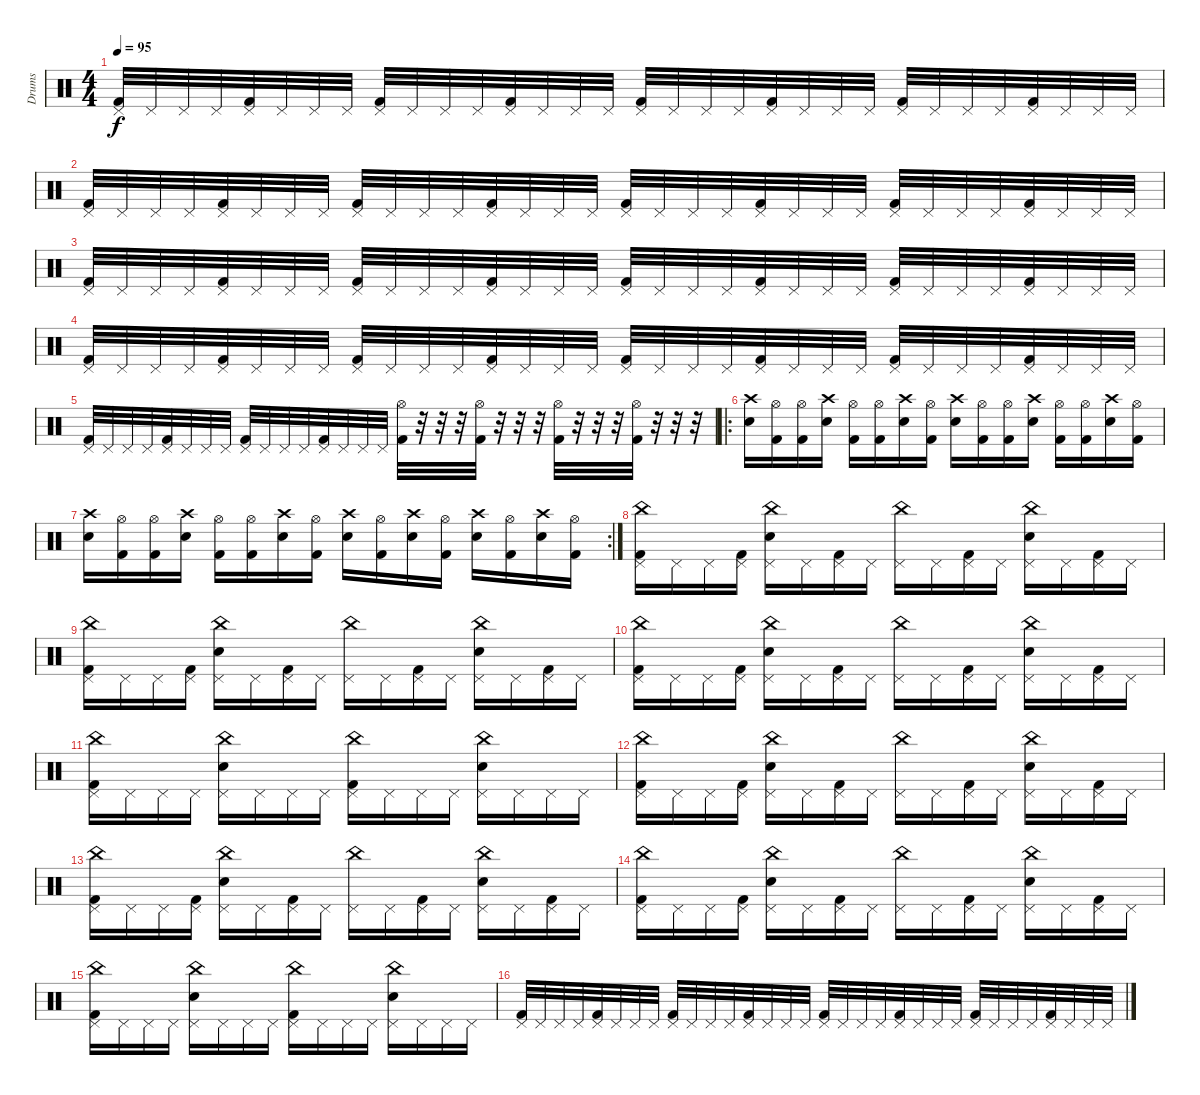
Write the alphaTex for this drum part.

\track ("Drums" "Drums") {instrument percussion}
\staff {score}
\articulation defaults
\ts (4 4)
\tempo 95
\clef neutral
\ks c
("Pedal Hi-Hat (hit)" "Kick (hit) 2").32{dy f} "Pedal Hi-Hat (hit)".32 "Pedal Hi-Hat (hit)".32 "Pedal Hi-Hat (hit)".32 ("Pedal Hi-Hat (hit)" "Kick (hit) 2").32 "Pedal Hi-Hat (hit)".32 "Pedal Hi-Hat (hit)".32 "Pedal Hi-Hat (hit)".32 ("Pedal Hi-Hat (hit)" "Kick (hit) 2").32 "Pedal Hi-Hat (hit)".32 "Pedal Hi-Hat (hit)".32 "Pedal Hi-Hat (hit)".32 ("Pedal Hi-Hat (hit)" "Kick (hit) 2").32 "Pedal Hi-Hat (hit)".32 "Pedal Hi-Hat (hit)".32 "Pedal Hi-Hat (hit)".32 ("Pedal Hi-Hat (hit)" "Kick (hit) 2").32 "Pedal Hi-Hat (hit)".32 "Pedal Hi-Hat (hit)".32 "Pedal Hi-Hat (hit)".32 ("Pedal Hi-Hat (hit)" "Kick (hit) 2").32 "Pedal Hi-Hat (hit)".32 "Pedal Hi-Hat (hit)".32 "Pedal Hi-Hat (hit)".32 ("Pedal Hi-Hat (hit)" "Kick (hit) 2").32 "Pedal Hi-Hat (hit)".32 "Pedal Hi-Hat (hit)".32 "Pedal Hi-Hat (hit)".32 ("Pedal Hi-Hat (hit)" "Kick (hit) 2").32 "Pedal Hi-Hat (hit)".32 "Pedal Hi-Hat (hit)".32 "Pedal Hi-Hat (hit)".32 |
("Pedal Hi-Hat (hit)" "Kick (hit) 2").32 "Pedal Hi-Hat (hit)".32 "Pedal Hi-Hat (hit)".32 "Pedal Hi-Hat (hit)".32 ("Pedal Hi-Hat (hit)" "Kick (hit) 2").32 "Pedal Hi-Hat (hit)".32 "Pedal Hi-Hat (hit)".32 "Pedal Hi-Hat (hit)".32 ("Pedal Hi-Hat (hit)" "Kick (hit) 2").32 "Pedal Hi-Hat (hit)".32 "Pedal Hi-Hat (hit)".32 "Pedal Hi-Hat (hit)".32 ("Pedal Hi-Hat (hit)" "Kick (hit) 2").32 "Pedal Hi-Hat (hit)".32 "Pedal Hi-Hat (hit)".32 "Pedal Hi-Hat (hit)".32 ("Pedal Hi-Hat (hit)" "Kick (hit) 2").32 "Pedal Hi-Hat (hit)".32 "Pedal Hi-Hat (hit)".32 "Pedal Hi-Hat (hit)".32 ("Pedal Hi-Hat (hit)" "Kick (hit) 2").32 "Pedal Hi-Hat (hit)".32 "Pedal Hi-Hat (hit)".32 "Pedal Hi-Hat (hit)".32 ("Pedal Hi-Hat (hit)" "Kick (hit) 2").32 "Pedal Hi-Hat (hit)".32 "Pedal Hi-Hat (hit)".32 "Pedal Hi-Hat (hit)".32 ("Pedal Hi-Hat (hit)" "Kick (hit) 2").32 "Pedal Hi-Hat (hit)".32 "Pedal Hi-Hat (hit)".32 "Pedal Hi-Hat (hit)".32 |
("Pedal Hi-Hat (hit)" "Kick (hit) 2").32 "Pedal Hi-Hat (hit)".32 "Pedal Hi-Hat (hit)".32 "Pedal Hi-Hat (hit)".32 ("Pedal Hi-Hat (hit)" "Kick (hit) 2").32 "Pedal Hi-Hat (hit)".32 "Pedal Hi-Hat (hit)".32 "Pedal Hi-Hat (hit)".32 ("Pedal Hi-Hat (hit)" "Kick (hit) 2").32 "Pedal Hi-Hat (hit)".32 "Pedal Hi-Hat (hit)".32 "Pedal Hi-Hat (hit)".32 ("Pedal Hi-Hat (hit)" "Kick (hit) 2").32 "Pedal Hi-Hat (hit)".32 "Pedal Hi-Hat (hit)".32 "Pedal Hi-Hat (hit)".32 ("Pedal Hi-Hat (hit)" "Kick (hit) 2").32 "Pedal Hi-Hat (hit)".32 "Pedal Hi-Hat (hit)".32 "Pedal Hi-Hat (hit)".32 ("Pedal Hi-Hat (hit)" "Kick (hit) 2").32 "Pedal Hi-Hat (hit)".32 "Pedal Hi-Hat (hit)".32 "Pedal Hi-Hat (hit)".32 ("Pedal Hi-Hat (hit)" "Kick (hit) 2").32 "Pedal Hi-Hat (hit)".32 "Pedal Hi-Hat (hit)".32 "Pedal Hi-Hat (hit)".32 ("Pedal Hi-Hat (hit)" "Kick (hit) 2").32 "Pedal Hi-Hat (hit)".32 "Pedal Hi-Hat (hit)".32 "Pedal Hi-Hat (hit)".32 |
("Pedal Hi-Hat (hit)" "Kick (hit) 2").32 "Pedal Hi-Hat (hit)".32 "Pedal Hi-Hat (hit)".32 "Pedal Hi-Hat (hit)".32 ("Pedal Hi-Hat (hit)" "Kick (hit) 2").32 "Pedal Hi-Hat (hit)".32 "Pedal Hi-Hat (hit)".32 "Pedal Hi-Hat (hit)".32 ("Pedal Hi-Hat (hit)" "Kick (hit) 2").32 "Pedal Hi-Hat (hit)".32 "Pedal Hi-Hat (hit)".32 "Pedal Hi-Hat (hit)".32 ("Pedal Hi-Hat (hit)" "Kick (hit) 2").32 "Pedal Hi-Hat (hit)".32 "Pedal Hi-Hat (hit)".32 "Pedal Hi-Hat (hit)".32 ("Pedal Hi-Hat (hit)" "Kick (hit) 2").32 "Pedal Hi-Hat (hit)".32 "Pedal Hi-Hat (hit)".32 "Pedal Hi-Hat (hit)".32 ("Pedal Hi-Hat (hit)" "Kick (hit) 2").32 "Pedal Hi-Hat (hit)".32 "Pedal Hi-Hat (hit)".32 "Pedal Hi-Hat (hit)".32 ("Pedal Hi-Hat (hit)" "Kick (hit) 2").32 "Pedal Hi-Hat (hit)".32 "Pedal Hi-Hat (hit)".32 "Pedal Hi-Hat (hit)".32 ("Pedal Hi-Hat (hit)" "Kick (hit) 2").32 "Pedal Hi-Hat (hit)".32 "Pedal Hi-Hat (hit)".32 "Pedal Hi-Hat (hit)".32 |
("Pedal Hi-Hat (hit)" "Kick (hit) 2").32 "Pedal Hi-Hat (hit)".32 "Pedal Hi-Hat (hit)".32 "Pedal Hi-Hat (hit)".32 ("Pedal Hi-Hat (hit)" "Kick (hit) 2").32 "Pedal Hi-Hat (hit)".32 "Pedal Hi-Hat (hit)".32 "Pedal Hi-Hat (hit)".32 ("Pedal Hi-Hat (hit)" "Kick (hit) 2").32 "Pedal Hi-Hat (hit)".32 "Pedal Hi-Hat (hit)".32 "Pedal Hi-Hat (hit)".32 ("Pedal Hi-Hat (hit)" "Kick (hit) 2").32 "Pedal Hi-Hat (hit)".32 "Pedal Hi-Hat (hit)".32 "Pedal Hi-Hat (hit)".32 ("Hi-Hat (open)" "Kick (hit) 2").32 r.32 r.32 r.32 ("Hi-Hat (open)" "Kick (hit) 2").32 r.32 r.32 r.32 ("Hi-Hat (open)" "Kick (hit) 2").32 r.32 r.32 r.32 ("Hi-Hat (open)" "Kick (hit) 2").32 r.32 r.32 r.32 |
\ro
("Crash high (hit)" "Electric Snare (hit)").16 ("Hi-Hat (open)" "Kick (hit) 2").16 ("Hi-Hat (open)" "Kick (hit) 2").16 ("Crash high (hit)" "Electric Snare (hit)").16 ("Hi-Hat (open)" "Kick (hit) 2").16 ("Hi-Hat (open)" "Kick (hit) 2").16 ("Crash high (hit)" "Electric Snare (hit)").16 ("Hi-Hat (open)" "Kick (hit) 2").16 ("Crash high (hit)" "Electric Snare (hit)").16 ("Hi-Hat (open)" "Kick (hit) 2").16 ("Hi-Hat (open)" "Kick (hit) 2").16 ("Crash high (hit)" "Electric Snare (hit)").16 ("Hi-Hat (open)" "Kick (hit) 2").16 ("Hi-Hat (open)" "Kick (hit) 2").16 ("Crash high (hit)" "Electric Snare (hit)").16 ("Hi-Hat (open)" "Kick (hit) 2").16 |
\rc 2
("Crash high (hit)" "Electric Snare (hit)").16 ("Hi-Hat (open)" "Kick (hit) 2").16 ("Hi-Hat (open)" "Kick (hit) 2").16 ("Crash high (hit)" "Electric Snare (hit)").16 ("Hi-Hat (open)" "Kick (hit) 2").16 ("Hi-Hat (open)" "Kick (hit) 2").16 ("Crash high (hit)" "Electric Snare (hit)").16 ("Hi-Hat (open)" "Kick (hit) 2").16 ("Crash high (hit)" "Electric Snare (hit)").16 ("Hi-Hat (open)" "Kick (hit) 2").16 ("Crash high (hit)" "Electric Snare (hit)").16 ("Hi-Hat (open)" "Kick (hit) 2").16 ("Crash high (hit)" "Electric Snare (hit)").16 ("Hi-Hat (open)" "Kick (hit) 2").16 ("Crash high (hit)" "Electric Snare (hit)").16 ("Hi-Hat (open)" "Kick (hit) 2").16 |
("Pedal Hi-Hat (hit)" "China (hit)" "Kick (hit) 2").16 "Pedal Hi-Hat (hit)".16 "Pedal Hi-Hat (hit)".16 ("Pedal Hi-Hat (hit)" "Kick (hit) 2").16 ("Pedal Hi-Hat (hit)" "China (hit)" "Electric Snare (hit)").16 "Pedal Hi-Hat (hit)".16 ("Pedal Hi-Hat (hit)" "Kick (hit) 2").16 "Pedal Hi-Hat (hit)".16 ("Pedal Hi-Hat (hit)" "China (hit)").16 "Pedal Hi-Hat (hit)".16 ("Pedal Hi-Hat (hit)" "Kick (hit) 2").16 "Pedal Hi-Hat (hit)".16 ("Pedal Hi-Hat (hit)" "China (hit)" "Electric Snare (hit)").16 "Pedal Hi-Hat (hit)".16 ("Pedal Hi-Hat (hit)" "Kick (hit) 2").16 "Pedal Hi-Hat (hit)".16 |
("Pedal Hi-Hat (hit)" "China (hit)" "Kick (hit) 2").16 "Pedal Hi-Hat (hit)".16 "Pedal Hi-Hat (hit)".16 ("Pedal Hi-Hat (hit)" "Kick (hit) 2").16 ("Pedal Hi-Hat (hit)" "China (hit)" "Electric Snare (hit)").16 "Pedal Hi-Hat (hit)".16 ("Pedal Hi-Hat (hit)" "Kick (hit) 2").16 "Pedal Hi-Hat (hit)".16 ("Pedal Hi-Hat (hit)" "China (hit)").16 "Pedal Hi-Hat (hit)".16 ("Pedal Hi-Hat (hit)" "Kick (hit) 2").16 "Pedal Hi-Hat (hit)".16 ("Pedal Hi-Hat (hit)" "China (hit)" "Electric Snare (hit)").16 "Pedal Hi-Hat (hit)".16 ("Pedal Hi-Hat (hit)" "Kick (hit) 2").16 "Pedal Hi-Hat (hit)".16 |
("Pedal Hi-Hat (hit)" "China (hit)" "Kick (hit) 2").16 "Pedal Hi-Hat (hit)".16 "Pedal Hi-Hat (hit)".16 ("Pedal Hi-Hat (hit)" "Kick (hit) 2").16 ("Pedal Hi-Hat (hit)" "China (hit)" "Electric Snare (hit)").16 "Pedal Hi-Hat (hit)".16 ("Pedal Hi-Hat (hit)" "Kick (hit) 2").16 "Pedal Hi-Hat (hit)".16 ("Pedal Hi-Hat (hit)" "China (hit)").16 "Pedal Hi-Hat (hit)".16 ("Pedal Hi-Hat (hit)" "Kick (hit) 2").16 "Pedal Hi-Hat (hit)".16 ("Pedal Hi-Hat (hit)" "China (hit)" "Electric Snare (hit)").16 "Pedal Hi-Hat (hit)".16 ("Pedal Hi-Hat (hit)" "Kick (hit) 2").16 "Pedal Hi-Hat (hit)".16 |
("Pedal Hi-Hat (hit)" "China (hit)" "Kick (hit) 2").16 "Pedal Hi-Hat (hit)".16 "Pedal Hi-Hat (hit)".16 "Pedal Hi-Hat (hit)".16 ("Pedal Hi-Hat (hit)" "China (hit)" "Electric Snare (hit)").16 "Pedal Hi-Hat (hit)".16 "Pedal Hi-Hat (hit)".16 "Pedal Hi-Hat (hit)".16 ("Pedal Hi-Hat (hit)" "China (hit)" "Kick (hit) 2").16 "Pedal Hi-Hat (hit)".16 "Pedal Hi-Hat (hit)".16 "Pedal Hi-Hat (hit)".16 ("Pedal Hi-Hat (hit)" "China (hit)" "Electric Snare (hit)").16 "Pedal Hi-Hat (hit)".16 "Pedal Hi-Hat (hit)".16 "Pedal Hi-Hat (hit)".16 |
("Pedal Hi-Hat (hit)" "China (hit)" "Kick (hit) 2").16 "Pedal Hi-Hat (hit)".16 "Pedal Hi-Hat (hit)".16 ("Pedal Hi-Hat (hit)" "Kick (hit) 2").16 ("Pedal Hi-Hat (hit)" "China (hit)" "Electric Snare (hit)").16 "Pedal Hi-Hat (hit)".16 ("Pedal Hi-Hat (hit)" "Kick (hit) 2").16 "Pedal Hi-Hat (hit)".16 ("Pedal Hi-Hat (hit)" "China (hit)").16 "Pedal Hi-Hat (hit)".16 ("Pedal Hi-Hat (hit)" "Kick (hit) 2").16 "Pedal Hi-Hat (hit)".16 ("Pedal Hi-Hat (hit)" "China (hit)" "Electric Snare (hit)").16 "Pedal Hi-Hat (hit)".16 ("Pedal Hi-Hat (hit)" "Kick (hit) 2").16 "Pedal Hi-Hat (hit)".16 |
("Pedal Hi-Hat (hit)" "China (hit)" "Kick (hit) 2").16 "Pedal Hi-Hat (hit)".16 "Pedal Hi-Hat (hit)".16 ("Pedal Hi-Hat (hit)" "Kick (hit) 2").16 ("Pedal Hi-Hat (hit)" "China (hit)" "Electric Snare (hit)").16 "Pedal Hi-Hat (hit)".16 ("Pedal Hi-Hat (hit)" "Kick (hit) 2").16 "Pedal Hi-Hat (hit)".16 ("Pedal Hi-Hat (hit)" "China (hit)").16 "Pedal Hi-Hat (hit)".16 ("Pedal Hi-Hat (hit)" "Kick (hit) 2").16 "Pedal Hi-Hat (hit)".16 ("Pedal Hi-Hat (hit)" "China (hit)" "Electric Snare (hit)").16 "Pedal Hi-Hat (hit)".16 ("Pedal Hi-Hat (hit)" "Kick (hit) 2").16 "Pedal Hi-Hat (hit)".16 |
("Pedal Hi-Hat (hit)" "China (hit)" "Kick (hit) 2").16 "Pedal Hi-Hat (hit)".16 "Pedal Hi-Hat (hit)".16 ("Pedal Hi-Hat (hit)" "Kick (hit) 2").16 ("Pedal Hi-Hat (hit)" "China (hit)" "Electric Snare (hit)").16 "Pedal Hi-Hat (hit)".16 ("Pedal Hi-Hat (hit)" "Kick (hit) 2").16 "Pedal Hi-Hat (hit)".16 ("Pedal Hi-Hat (hit)" "China (hit)").16 "Pedal Hi-Hat (hit)".16 ("Pedal Hi-Hat (hit)" "Kick (hit) 2").16 "Pedal Hi-Hat (hit)".16 ("Pedal Hi-Hat (hit)" "China (hit)" "Electric Snare (hit)").16 "Pedal Hi-Hat (hit)".16 ("Pedal Hi-Hat (hit)" "Kick (hit) 2").16 "Pedal Hi-Hat (hit)".16 |
("Pedal Hi-Hat (hit)" "China (hit)" "Kick (hit) 2").16 "Pedal Hi-Hat (hit)".16 "Pedal Hi-Hat (hit)".16 "Pedal Hi-Hat (hit)".16 ("Pedal Hi-Hat (hit)" "China (hit)" "Electric Snare (hit)").16 "Pedal Hi-Hat (hit)".16 "Pedal Hi-Hat (hit)".16 "Pedal Hi-Hat (hit)".16 ("Pedal Hi-Hat (hit)" "China (hit)" "Kick (hit) 2").16 "Pedal Hi-Hat (hit)".16 "Pedal Hi-Hat (hit)".16 "Pedal Hi-Hat (hit)".16 ("Pedal Hi-Hat (hit)" "China (hit)" "Electric Snare (hit)").16 "Pedal Hi-Hat (hit)".16 "Pedal Hi-Hat (hit)".16 "Pedal Hi-Hat (hit)".16 |
("Pedal Hi-Hat (hit)" "Kick (hit) 2").32 "Pedal Hi-Hat (hit)".32 "Pedal Hi-Hat (hit)".32 "Pedal Hi-Hat (hit)".32 ("Pedal Hi-Hat (hit)" "Kick (hit) 2").32 "Pedal Hi-Hat (hit)".32 "Pedal Hi-Hat (hit)".32 "Pedal Hi-Hat (hit)".32 ("Pedal Hi-Hat (hit)" "Kick (hit) 2").32 "Pedal Hi-Hat (hit)".32 "Pedal Hi-Hat (hit)".32 "Pedal Hi-Hat (hit)".32 ("Pedal Hi-Hat (hit)" "Kick (hit) 2").32 "Pedal Hi-Hat (hit)".32 "Pedal Hi-Hat (hit)".32 "Pedal Hi-Hat (hit)".32 ("Pedal Hi-Hat (hit)" "Kick (hit) 2").32 "Pedal Hi-Hat (hit)".32 "Pedal Hi-Hat (hit)".32 "Pedal Hi-Hat (hit)".32 ("Pedal Hi-Hat (hit)" "Kick (hit) 2").32 "Pedal Hi-Hat (hit)".32 "Pedal Hi-Hat (hit)".32 "Pedal Hi-Hat (hit)".32 ("Pedal Hi-Hat (hit)" "Kick (hit) 2").32 "Pedal Hi-Hat (hit)".32 "Pedal Hi-Hat (hit)".32 "Pedal Hi-Hat (hit)".32 ("Pedal Hi-Hat (hit)" "Kick (hit) 2").32 "Pedal Hi-Hat (hit)".32 "Pedal Hi-Hat (hit)".32 "Pedal Hi-Hat (hit)".32
